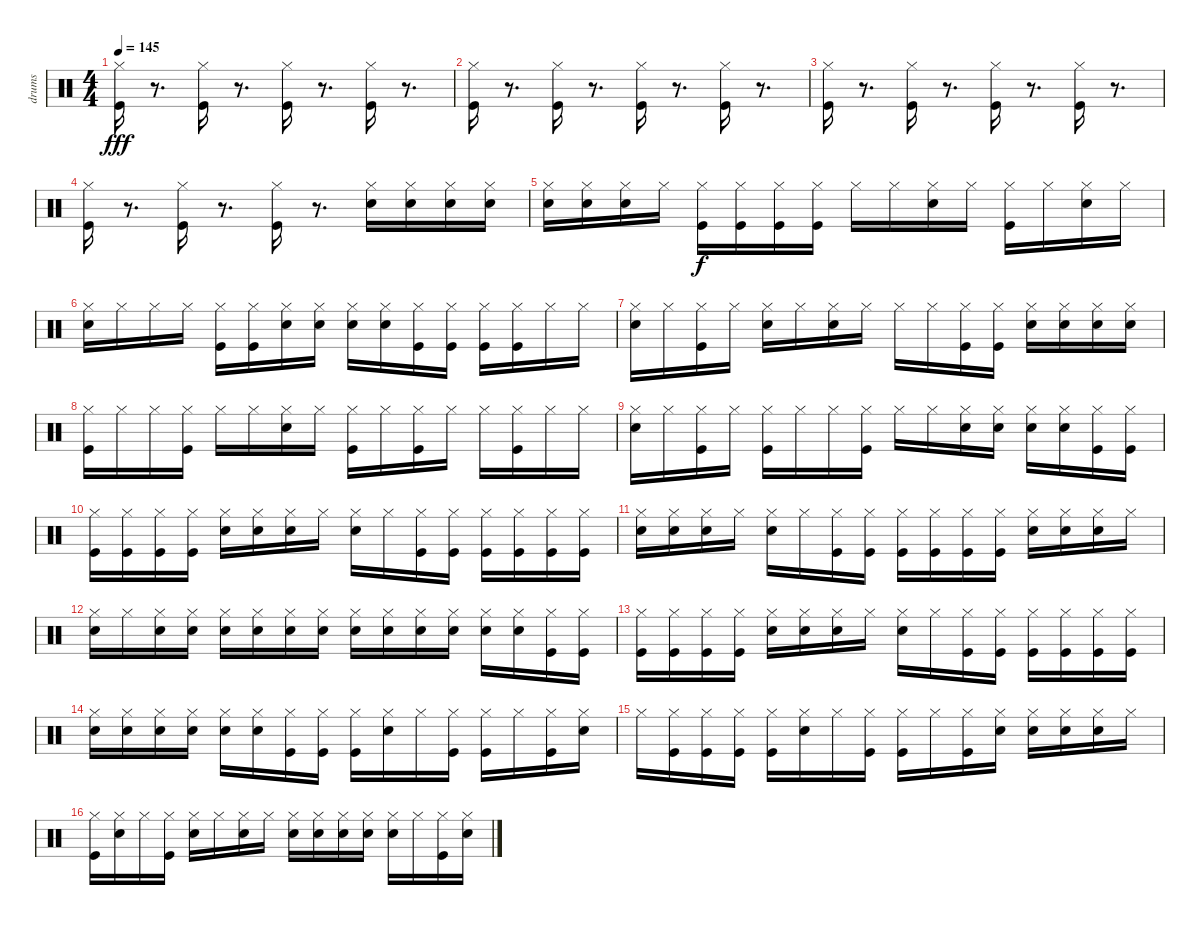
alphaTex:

\track ("drums" "drums") {instrument percussion}
\staff {score}
\articulation defaults
\ts (4 4)
\tempo 145
\clef neutral
\ks c
("Kick (hit)" "Hi-Hat (closed)").16{dy fff} r.8{d} ("Kick (hit)" "Hi-Hat (closed)").16 r.8{d} ("Kick (hit)" "Hi-Hat (closed)").16 r.8{d} ("Kick (hit)" "Hi-Hat (closed)").16 r.8{d} |
("Kick (hit)" "Hi-Hat (closed)").16 r.8{d} ("Kick (hit)" "Hi-Hat (closed)").16 r.8{d} ("Kick (hit)" "Hi-Hat (closed)").16 r.8{d} ("Kick (hit)" "Hi-Hat (closed)").16 r.8{d} |
("Kick (hit)" "Hi-Hat (closed)").16 r.8{d} ("Kick (hit)" "Hi-Hat (closed)").16 r.8{d} ("Kick (hit)" "Hi-Hat (closed)").16 r.8{d} ("Kick (hit)" "Hi-Hat (closed)").16 r.8{d} |
("Kick (hit)" "Hi-Hat (closed)").16 r.8{d} ("Kick (hit)" "Hi-Hat (closed)").16 r.8{d} ("Kick (hit)" "Hi-Hat (closed)").16 r.8{d} ("Hi-Hat (closed)" "Snare (hit) 2").16 ("Hi-Hat (closed)" "Snare (hit) 2").16 ("Hi-Hat (closed)" "Snare (hit) 2").16 ("Hi-Hat (closed)" "Snare (hit) 2").16 |
("Hi-Hat (closed)" "Snare (hit) 2").16 ("Hi-Hat (closed)" "Snare (hit) 2").16 ("Hi-Hat (closed)" "Snare (hit) 2").16 "Hi-Hat (closed)".16 ("Kick (hit)" "Hi-Hat (closed)").16{dy f} ("Kick (hit)" "Hi-Hat (closed)").16 ("Kick (hit)" "Hi-Hat (closed)").16 ("Kick (hit)" "Hi-Hat (closed)").16 "Hi-Hat (closed)".16 "Hi-Hat (closed)".16 ("Snare (hit) 2" "Hi-Hat (closed)").16 "Hi-Hat (closed)".16 ("Kick (hit)" "Hi-Hat (closed)").16 "Hi-Hat (closed)".16 ("Snare (hit) 2" "Hi-Hat (closed)").16 "Hi-Hat (closed)".16 |
("Snare (hit) 2" "Hi-Hat (closed)").16 "Hi-Hat (closed)".16 "Hi-Hat (closed)".16 "Hi-Hat (closed)".16 ("Kick (hit)" "Hi-Hat (closed)").16 ("Kick (hit)" "Hi-Hat (closed)").16 ("Snare (hit) 2" "Hi-Hat (closed)").16 ("Snare (hit) 2" "Hi-Hat (closed)").16 ("Snare (hit) 2" "Hi-Hat (closed)").16 ("Snare (hit) 2" "Hi-Hat (closed)").16 ("Kick (hit)" "Hi-Hat (closed)").16 ("Kick (hit)" "Hi-Hat (closed)").16 ("Kick (hit)" "Hi-Hat (closed)").16 ("Kick (hit)" "Hi-Hat (closed)").16 "Hi-Hat (closed)".16 "Hi-Hat (closed)".16 |
("Snare (hit) 2" "Hi-Hat (closed)").16 "Hi-Hat (closed)".16 ("Kick (hit)" "Hi-Hat (closed)").16 "Hi-Hat (closed)".16 ("Snare (hit) 2" "Hi-Hat (closed)").16 "Hi-Hat (closed)".16 ("Snare (hit) 2" "Hi-Hat (closed)").16 "Hi-Hat (closed)".16 "Hi-Hat (closed)".16 "Hi-Hat (closed)".16 ("Kick (hit)" "Hi-Hat (closed)").16 ("Kick (hit)" "Hi-Hat (closed)").16 ("Snare (hit) 2" "Hi-Hat (closed)").16 ("Snare (hit) 2" "Hi-Hat (closed)").16 ("Snare (hit) 2" "Hi-Hat (closed)").16 ("Snare (hit) 2" "Hi-Hat (closed)").16 |
("Hi-Hat (closed)" "Kick (hit)").16 "Hi-Hat (closed)".16 "Hi-Hat (closed)".16 ("Kick (hit)" "Hi-Hat (closed)").16 "Hi-Hat (closed)".16 "Hi-Hat (closed)".16 ("Snare (hit) 2" "Hi-Hat (closed)").16 "Hi-Hat (closed)".16 ("Kick (hit)" "Hi-Hat (closed)").16 "Hi-Hat (closed)".16 ("Hi-Hat (closed)" "Kick (hit)").16 "Hi-Hat (closed)".16 "Hi-Hat (closed)".16 ("Kick (hit)" "Hi-Hat (closed)").16 "Hi-Hat (closed)".16 "Hi-Hat (closed)".16 |
("Snare (hit) 2" "Hi-Hat (closed)").16 "Hi-Hat (closed)".16 ("Kick (hit)" "Hi-Hat (closed)").16 "Hi-Hat (closed)".16 ("Hi-Hat (closed)" "Kick (hit)").16 "Hi-Hat (closed)".16 "Hi-Hat (closed)".16 ("Kick (hit)" "Hi-Hat (closed)").16 "Hi-Hat (closed)".16 "Hi-Hat (closed)".16 ("Hi-Hat (closed)" "Snare (hit) 2").16 ("Hi-Hat (closed)" "Snare (hit) 2").16 ("Hi-Hat (closed)" "Snare (hit) 2").16 ("Hi-Hat (closed)" "Snare (hit) 2").16 ("Hi-Hat (closed)" "Kick (hit)").16 ("Kick (hit)" "Hi-Hat (closed)").16 |
("Kick (hit)" "Hi-Hat (closed)").16 ("Kick (hit)" "Hi-Hat (closed)").16 ("Kick (hit)" "Hi-Hat (closed)").16 ("Kick (hit)" "Hi-Hat (closed)").16 ("Snare (hit) 2" "Hi-Hat (closed)").16 ("Snare (hit) 2" "Hi-Hat (closed)").16 ("Snare (hit) 2" "Hi-Hat (closed)").16 "Hi-Hat (closed)".16 ("Snare (hit) 2" "Hi-Hat (closed)").16 "Hi-Hat (closed)".16 ("Hi-Hat (closed)" "Kick (hit)").16 ("Kick (hit)" "Hi-Hat (closed)").16 ("Kick (hit)" "Hi-Hat (closed)").16 ("Kick (hit)" "Hi-Hat (closed)").16 ("Kick (hit)" "Hi-Hat (closed)").16 ("Kick (hit)" "Hi-Hat (closed)").16 |
("Snare (hit) 2" "Hi-Hat (closed)").16 ("Snare (hit) 2" "Hi-Hat (closed)").16 ("Snare (hit) 2" "Hi-Hat (closed)").16 "Hi-Hat (closed)".16 ("Snare (hit) 2" "Hi-Hat (closed)").16 "Hi-Hat (closed)".16 ("Hi-Hat (closed)" "Kick (hit)").16 ("Kick (hit)" "Hi-Hat (closed)").16 ("Kick (hit)" "Hi-Hat (closed)").16 ("Kick (hit)" "Hi-Hat (closed)").16 ("Kick (hit)" "Hi-Hat (closed)").16 ("Kick (hit)" "Hi-Hat (closed)").16 ("Snare (hit) 2" "Hi-Hat (closed)").16 ("Snare (hit) 2" "Hi-Hat (closed)").16 ("Snare (hit) 2" "Hi-Hat (closed)").16 "Hi-Hat (closed)".16 |
("Snare (hit) 2" "Hi-Hat (closed)").16 "Hi-Hat (closed)".16 ("Hi-Hat (closed)" "Snare (hit) 2").16 ("Hi-Hat (closed)" "Snare (hit) 2").16 ("Hi-Hat (closed)" "Snare (hit) 2").16 ("Hi-Hat (closed)" "Snare (hit) 2").16 ("Hi-Hat (closed)" "Snare (hit) 2").16 ("Hi-Hat (closed)" "Snare (hit) 2").16 ("Hi-Hat (closed)" "Snare (hit) 2").16 ("Hi-Hat (closed)" "Snare (hit) 2").16 ("Hi-Hat (closed)" "Snare (hit) 2").16 ("Hi-Hat (closed)" "Snare (hit) 2").16 ("Hi-Hat (closed)" "Snare (hit) 2").16 ("Hi-Hat (closed)" "Snare (hit) 2").16 ("Hi-Hat (closed)" "Kick (hit)").16 ("Kick (hit)" "Hi-Hat (closed)").16 |
("Kick (hit)" "Hi-Hat (closed)").16 ("Kick (hit)" "Hi-Hat (closed)").16 ("Kick (hit)" "Hi-Hat (closed)").16 ("Kick (hit)" "Hi-Hat (closed)").16 ("Snare (hit) 2" "Hi-Hat (closed)").16 ("Snare (hit) 2" "Hi-Hat (closed)").16 ("Snare (hit) 2" "Hi-Hat (closed)").16 "Hi-Hat (closed)".16 ("Snare (hit) 2" "Hi-Hat (closed)").16 "Hi-Hat (closed)".16 ("Hi-Hat (closed)" "Kick (hit)").16 ("Kick (hit)" "Hi-Hat (closed)").16 ("Kick (hit)" "Hi-Hat (closed)").16 ("Kick (hit)" "Hi-Hat (closed)").16 ("Kick (hit)" "Hi-Hat (closed)").16 ("Kick (hit)" "Hi-Hat (closed)").16 |
("Hi-Hat (closed)" "Snare (hit) 2").16 ("Hi-Hat (closed)" "Snare (hit) 2").16 ("Hi-Hat (closed)" "Snare (hit) 2").16 ("Hi-Hat (closed)" "Snare (hit) 2").16 ("Hi-Hat (closed)" "Snare (hit) 2").16 ("Hi-Hat (closed)" "Snare (hit) 2").16 ("Hi-Hat (closed)" "Kick (hit)").16 ("Kick (hit)" "Hi-Hat (closed)").16 ("Kick (hit)" "Hi-Hat (closed)").16 ("Snare (hit) 2" "Hi-Hat (closed)").16 "Hi-Hat (closed)".16 ("Kick (hit)" "Hi-Hat (closed)").16 ("Kick (hit)" "Hi-Hat (closed)").16 "Hi-Hat (closed)".16 ("Kick (hit)" "Hi-Hat (closed)").16 ("Snare (hit) 2" "Hi-Hat (closed)").16 |
"Hi-Hat (closed)".16 ("Kick (hit)" "Hi-Hat (closed)").16 ("Hi-Hat (closed)" "Kick (hit)").16 ("Kick (hit)" "Hi-Hat (closed)").16 ("Kick (hit)" "Hi-Hat (closed)").16 ("Snare (hit) 2" "Hi-Hat (closed)").16 "Hi-Hat (closed)".16 ("Kick (hit)" "Hi-Hat (closed)").16 ("Kick (hit)" "Hi-Hat (closed)").16 "Hi-Hat (closed)".16 ("Kick (hit)" "Hi-Hat (closed)").16 ("Hi-Hat (closed)" "Snare (hit) 2").16 ("Hi-Hat (closed)" "Snare (hit) 2").16 ("Hi-Hat (closed)" "Snare (hit) 2").16 ("Snare (hit) 2" "Hi-Hat (closed)").16 "Hi-Hat (closed)".16 |
("Kick (hit)" "Hi-Hat (closed)").16 ("Snare (hit) 2" "Hi-Hat (closed)").16 "Hi-Hat (closed)".16 ("Kick (hit)" "Hi-Hat (closed)").16 ("Snare (hit) 2" "Hi-Hat (closed)").16 "Hi-Hat (closed)".16 ("Snare (hit) 2" "Hi-Hat (closed)").16 "Hi-Hat (closed)".16 ("Snare (hit) 2" "Hi-Hat (closed)").16 ("Snare (hit) 2" "Hi-Hat (closed)").16 ("Snare (hit) 2" "Hi-Hat (closed)").16 ("Snare (hit) 2" "Hi-Hat (closed)").16 ("Snare (hit) 2" "Hi-Hat (closed)").16 "Hi-Hat (closed)".16 ("Kick (hit)" "Hi-Hat (closed)").16 ("Snare (hit) 2" "Hi-Hat (closed)").16
